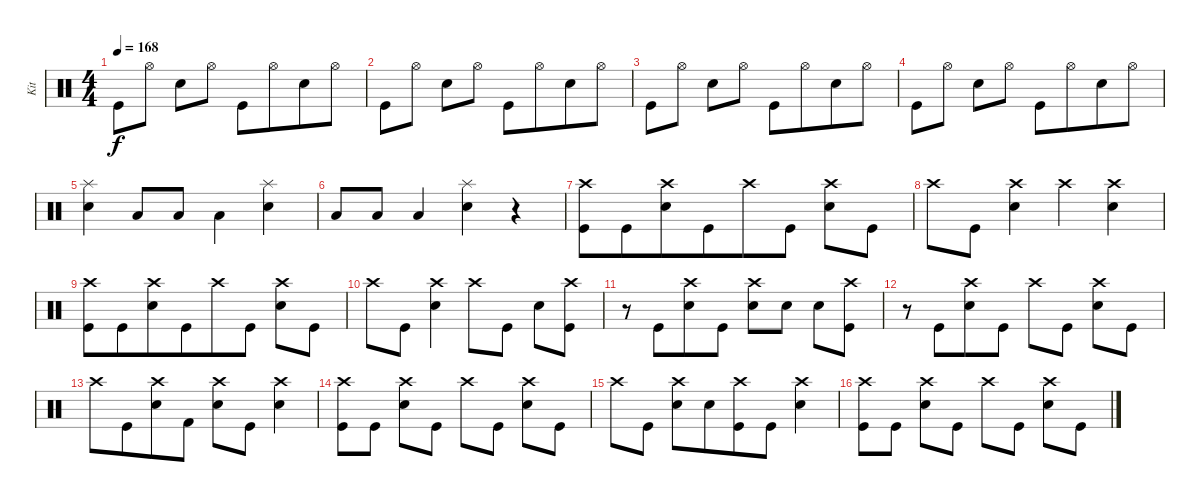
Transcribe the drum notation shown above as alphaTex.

\track ("Kit" "Kit") {instrument percussion}
\staff {score}
\articulation defaults
\ts (4 4)
\tempo 168
\clef neutral
\ks c "Kick (hit)".8{dy f} "Hi-Hat (open)".8 "Electric Snare (hit)".8 "Hi-Hat (open)".8 "Kick (hit)".8 "Hi-Hat (open)".8{beam merge} "Electric Snare (hit)".8 "Hi-Hat (open)".8
|
"Kick (hit)".8 "Hi-Hat (open)".8 "Electric Snare (hit)".8 "Hi-Hat (open)".8 "Kick (hit)".8 "Hi-Hat (open)".8{beam merge} "Electric Snare (hit)".8 "Hi-Hat (open)".8 |
"Kick (hit)".8 "Hi-Hat (open)".8 "Electric Snare (hit)".8 "Hi-Hat (open)".8 "Kick (hit)".8 "Hi-Hat (open)".8{beam merge} "Electric Snare (hit)".8 "Hi-Hat (open)".8 |
"Kick (hit)".8 "Hi-Hat (open)".8 "Electric Snare (hit)".8 "Hi-Hat (open)".8 "Kick (hit)".8 "Hi-Hat (open)".8{beam merge} "Electric Snare (hit)".8 "Hi-Hat (open)".8 |
("Splash (hit)" "Electric Snare (hit)").4 "Low Tom (hit)".8 "Low Tom (hit)".8 "Low Floor Tom (hit)".4{beam merge} ("Splash (hit)" "Electric Snare (hit)").4 |
"Low Tom (hit)".8 "Low Tom (hit)".8 "Low Floor Tom (hit)".4 ("Splash (hit)" "Electric Snare (hit)").4 r.4 |
("Crash high (hit)" "Kick (hit)").8 "Kick (hit)".8{beam merge} ("Crash high (hit)" "Electric Snare (hit)").8 "Kick (hit)".8{beam merge} "Crash high (hit)".8 "Kick (hit)".8 ("Crash high (hit)" "Electric Snare (hit)").8 "Kick (hit)".8 |
"Crash high (hit)".8{beam merge} "Kick (hit)".8 ("Crash high (hit)" "Electric Snare (hit)").4{beam merge} "Crash high (hit)".4 ("Crash high (hit)" "Electric Snare (hit)").4 |
("Crash high (hit)" "Kick (hit)").8 "Kick (hit)".8{beam merge} ("Crash high (hit)" "Electric Snare (hit)").8 "Kick (hit)".8{beam merge} "Crash high (hit)".8 "Kick (hit)".8 ("Crash high (hit)" "Electric Snare (hit)").8 "Kick (hit)".8 |
"Crash high (hit)".8{beam merge} "Kick (hit)".8 ("Crash high (hit)" "Electric Snare (hit)").4{beam merge} "Crash high (hit)".8{beam merge} "Kick (hit)".8 "Electric Snare (hit)".8 ("Crash high (hit)" "Kick (hit)").8 |
r.8 "Kick (hit)".8{beam merge} ("Crash high (hit)" "Electric Snare (hit)").8{beam merge} "Kick (hit)".8 ("Crash high (hit)" "Electric Snare (hit)").8 "Electric Snare (hit)".8 "Electric Snare (hit)".8 ("Crash high (hit)" "Kick (hit)").8 |
r.8{beam merge} "Kick (hit)".8{beam merge} ("Crash high (hit)" "Electric Snare (hit)").8 "Kick (hit)".8 "Crash high (hit)".8{beam merge} "Kick (hit)".8 ("Crash high (hit)" "Electric Snare (hit)").8{beam merge} "Kick (hit)".8 |
"Crash high (hit)".8 "Kick (hit)".8{beam merge} ("Crash high (hit)" "Electric Snare (hit)").8 "Kick (hit) 2".8 ("Crash high (hit)" "Electric Snare (hit)").8 "Kick (hit)".8 ("Crash high (hit)" "Electric Snare (hit)").4 |
("Crash high (hit)" "Kick (hit)").8{beam merge} "Kick (hit)".8 ("Crash high (hit)" "Electric Snare (hit)").8 "Kick (hit)".8 "Crash high (hit)".8 "Kick (hit)".8 ("Crash high (hit)" "Electric Snare (hit)").8 "Kick (hit)".8 |
"Crash high (hit)".8 "Kick (hit)".8 ("Crash high (hit)" "Electric Snare (hit)").8 "Electric Snare (hit)".8{beam merge} ("Crash high (hit)" "Kick (hit)").8 "Kick (hit)".8 ("Crash high (hit)" "Electric Snare (hit)").4 |
("Crash high (hit)" "Kick (hit)").8{beam merge} "Kick (hit)".8 ("Crash high (hit)" "Electric Snare (hit)").8 "Kick (hit)".8 "Crash high (hit)".8 "Kick (hit)".8 ("Crash high (hit)" "Electric Snare (hit)").8 "Kick (hit)".8
